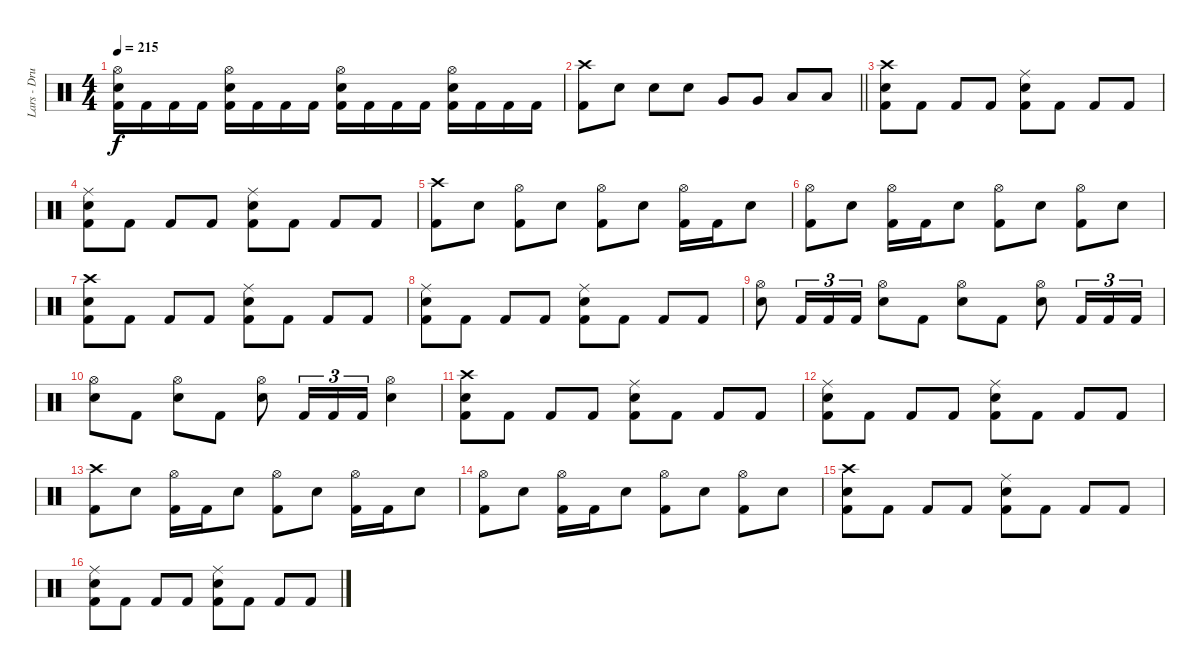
\track ("Lars - Drums" "Lars - Dru") {instrument percussion}
\staff {score}
\articulation defaults
\ts (4 4)
\tempo 215
\clef neutral
\ks c
("Kick (hit) 2" "Electric Snare (hit)" "Hi-Hat (open)").16{dy f} "Kick (hit) 2".16 "Kick (hit) 2".16 "Kick (hit) 2".16 ("Kick (hit) 2" "Electric Snare (hit)" "Hi-Hat (open)").16 "Kick (hit) 2".16 "Kick (hit) 2".16 "Kick (hit) 2".16 ("Kick (hit) 2" "Electric Snare (hit)" "Hi-Hat (open)").16 "Kick (hit) 2".16 "Kick (hit) 2".16 "Kick (hit) 2".16 ("Kick (hit) 2" "Electric Snare (hit)" "Hi-Hat (open)").16 "Kick (hit) 2".16 "Kick (hit) 2".16 "Kick (hit) 2".16 |
\barLineRight lightlight
("Kick (hit) 2" "Crash high (hit)").8 "Electric Snare (hit)".8 "Electric Snare (hit)".8 "Electric Snare (hit)".8 "Very Low Tom (hit)".8 "Very Low Tom (hit)".8 "Low Floor Tom (hit)".8 "Low Floor Tom (hit)".8 |
\section ("" "")
("Kick (hit) 2" "Electric Snare (hit)" "Crash high (hit)").8 "Kick (hit) 2".8 "Kick (hit) 2".8 "Kick (hit) 2".8 ("Kick (hit) 2" "Electric Snare (hit)" "Ride (middle)").8 "Kick (hit) 2".8 "Kick (hit) 2".8 "Kick (hit) 2".8 |
("Kick (hit) 2" "Electric Snare (hit)" "Ride (middle)").8 "Kick (hit) 2".8 "Kick (hit) 2".8 "Kick (hit) 2".8 ("Kick (hit) 2" "Electric Snare (hit)" "Ride (middle)").8 "Kick (hit) 2".8 "Kick (hit) 2".8 "Kick (hit) 2".8 |
("Kick (hit) 2" "Crash high (hit)").8 "Electric Snare (hit)".8 ("Kick (hit) 2" "Hi-Hat (open)").8 "Electric Snare (hit)".8 ("Kick (hit) 2" "Hi-Hat (open)").8 "Electric Snare (hit)".8 ("Kick (hit) 2" "Hi-Hat (open)").16 "Kick (hit) 2".16 "Electric Snare (hit)".8 |
("Kick (hit) 2" "Hi-Hat (open)").8 "Electric Snare (hit)".8 ("Kick (hit) 2" "Hi-Hat (open)").16 "Kick (hit) 2".16 "Electric Snare (hit)".8 ("Kick (hit) 2" "Hi-Hat (open)").8 "Electric Snare (hit)".8 ("Kick (hit) 2" "Hi-Hat (open)").8 "Electric Snare (hit)".8 |
("Kick (hit) 2" "Electric Snare (hit)" "Crash high (hit)").8 "Kick (hit) 2".8 "Kick (hit) 2".8 "Kick (hit) 2".8 ("Kick (hit) 2" "Electric Snare (hit)" "Ride (middle)").8 "Kick (hit) 2".8 "Kick (hit) 2".8 "Kick (hit) 2".8 |
("Kick (hit) 2" "Electric Snare (hit)" "Ride (middle)").8 "Kick (hit) 2".8 "Kick (hit) 2".8 "Kick (hit) 2".8 ("Kick (hit) 2" "Electric Snare (hit)" "Ride (middle)").8 "Kick (hit) 2".8 "Kick (hit) 2".8 "Kick (hit) 2".8 |
("Electric Snare (hit)" "Hi-Hat (open)").8 "Kick (hit) 2".16{tu (3 2)} "Kick (hit) 2".16{tu (3 2)} "Kick (hit) 2".16{tu (3 2)} ("Electric Snare (hit)" "Hi-Hat (open)").8 "Kick (hit) 2".8 ("Electric Snare (hit)" "Hi-Hat (open)").8 "Kick (hit) 2".8 ("Electric Snare (hit)" "Hi-Hat (open)").8 "Kick (hit) 2".16{tu (3 2)} "Kick (hit) 2".16{tu (3 2)} "Kick (hit) 2".16{tu (3 2)} |
("Electric Snare (hit)" "Hi-Hat (open)").8 "Kick (hit) 2".8 ("Electric Snare (hit)" "Hi-Hat (open)").8 "Kick (hit) 2".8 ("Electric Snare (hit)" "Hi-Hat (open)").8 "Kick (hit) 2".16{tu (3 2)} "Kick (hit) 2".16{tu (3 2)} "Kick (hit) 2".16{tu (3 2)} ("Electric Snare (hit)" "Hi-Hat (open)").4 |
("Kick (hit) 2" "Electric Snare (hit)" "Crash high (hit)").8 "Kick (hit) 2".8 "Kick (hit) 2".8 "Kick (hit) 2".8 ("Kick (hit) 2" "Electric Snare (hit)" "Ride (middle)").8 "Kick (hit) 2".8 "Kick (hit) 2".8 "Kick (hit) 2".8 |
("Kick (hit) 2" "Electric Snare (hit)" "Ride (middle)").8 "Kick (hit) 2".8 "Kick (hit) 2".8 "Kick (hit) 2".8 ("Kick (hit) 2" "Electric Snare (hit)" "Ride (middle)").8 "Kick (hit) 2".8 "Kick (hit) 2".8 "Kick (hit) 2".8 |
("Kick (hit) 2" "Crash high (hit)").8 "Electric Snare (hit)".8 ("Kick (hit) 2" "Hi-Hat (open)").16 "Kick (hit) 2".16 "Electric Snare (hit)".8 ("Kick (hit) 2" "Hi-Hat (open)").8 "Electric Snare (hit)".8 ("Kick (hit) 2" "Hi-Hat (open)").16 "Kick (hit) 2".16 "Electric Snare (hit)".8 |
("Kick (hit) 2" "Hi-Hat (open)").8 "Electric Snare (hit)".8 ("Kick (hit) 2" "Hi-Hat (open)").16 "Kick (hit) 2".16 "Electric Snare (hit)".8 ("Kick (hit) 2" "Hi-Hat (open)").8 "Electric Snare (hit)".8 ("Kick (hit) 2" "Hi-Hat (open)").8 "Electric Snare (hit)".8 |
("Kick (hit) 2" "Electric Snare (hit)" "Crash high (hit)").8 "Kick (hit) 2".8 "Kick (hit) 2".8 "Kick (hit) 2".8 ("Kick (hit) 2" "Electric Snare (hit)" "Ride (middle)").8 "Kick (hit) 2".8 "Kick (hit) 2".8 "Kick (hit) 2".8 |
("Kick (hit) 2" "Electric Snare (hit)" "Ride (middle)").8 "Kick (hit) 2".8 "Kick (hit) 2".8 "Kick (hit) 2".8 ("Kick (hit) 2" "Electric Snare (hit)" "Ride (middle)").8 "Kick (hit) 2".8 "Kick (hit) 2".8 "Kick (hit) 2".8
